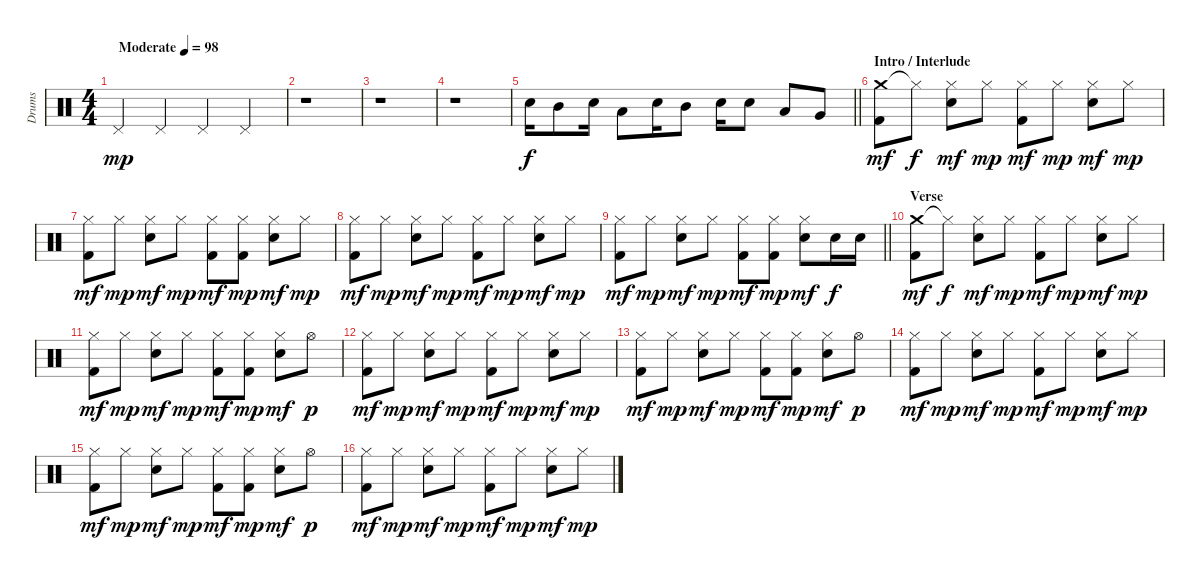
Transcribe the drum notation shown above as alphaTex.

\track ("Drums" "Drums") {instrument percussion}
\staff {score}
\articulation defaults
\ts (4 4)
\tempo (98 "Moderate")
\clef neutral
\ks c "Pedal Hi-Hat (hit)".4{dy mp} "Pedal Hi-Hat (hit)".4 "Pedal Hi-Hat (hit)".4 "Pedal Hi-Hat (hit)".4
|
r.1 |
r.1 |
r.1 |
\barLineRight lightlight "Electric Snare (hit)".16{dy f} "Mid Tom (hit)".8 "Electric Snare (hit)".16 "Low Tom (hit)".8 "Electric Snare (hit)".16 "Mid Tom (hit)".8 "Electric Snare (hit)".16 "Electric Snare (hit)".8 "Low Tom (hit)".8 "Very Low Tom (hit)".8
|
\section ("" "Intro / Interlude")
("Crash medium (hit)" "Kick (hit) 2").8{dy mf} "Hi-Hat (closed)"{t}.8{dy f} ("Hi-Hat (closed)" "Electric Snare (hit)").8{dy mf} "Hi-Hat (closed)".8{dy mp} ("Hi-Hat (closed)" "Kick (hit) 2").8{dy mf} "Hi-Hat (closed)".8{dy mp} ("Hi-Hat (closed)" "Electric Snare (hit)").8{dy mf} "Hi-Hat (closed)".8{dy mp} |
("Hi-Hat (closed)" "Kick (hit) 2").8{dy mf} "Hi-Hat (closed)".8{dy mp} ("Hi-Hat (closed)" "Electric Snare (hit)").8{dy mf} "Hi-Hat (closed)".8{dy mp} ("Hi-Hat (closed)" "Kick (hit) 2").8{dy mf} ("Hi-Hat (closed)" "Kick (hit) 2").8{dy mp} ("Hi-Hat (closed)" "Electric Snare (hit)").8{dy mf} "Hi-Hat (closed)".8{dy mp} |
("Hi-Hat (closed)" "Kick (hit) 2").8{dy mf} "Hi-Hat (closed)".8{dy mp} ("Hi-Hat (closed)" "Electric Snare (hit)").8{dy mf} "Hi-Hat (closed)".8{dy mp} ("Hi-Hat (closed)" "Kick (hit) 2").8{dy mf} "Hi-Hat (closed)".8{dy mp} ("Hi-Hat (closed)" "Electric Snare (hit)").8{dy mf} "Hi-Hat (closed)".8{dy mp} |
\barLineRight lightlight
("Hi-Hat (closed)" "Kick (hit) 2").8{dy mf} "Hi-Hat (closed)".8{dy mp} ("Hi-Hat (closed)" "Electric Snare (hit)").8{dy mf} "Hi-Hat (closed)".8{dy mp} ("Hi-Hat (closed)" "Kick (hit) 2").8{dy mf} ("Hi-Hat (closed)" "Kick (hit) 2").8{dy mp} ("Hi-Hat (closed)" "Electric Snare (hit)").8{dy mf} "Electric Snare (hit)".16{dy f} "Electric Snare (hit)".16 |
\section ("" "Verse")
("Crash medium (hit)" "Kick (hit) 2").8{dy mf} "Hi-Hat (closed)"{t}.8{dy f} ("Hi-Hat (closed)" "Electric Snare (hit)").8{dy mf} "Hi-Hat (closed)".8{dy mp} ("Hi-Hat (closed)" "Kick (hit) 2").8{dy mf} "Hi-Hat (closed)".8{dy mp} ("Hi-Hat (closed)" "Electric Snare (hit)").8{dy mf} "Hi-Hat (closed)".8{dy mp} |
("Hi-Hat (closed)" "Kick (hit) 2").8{dy mf} "Hi-Hat (closed)".8{dy mp} ("Hi-Hat (closed)" "Electric Snare (hit)").8{dy mf} "Hi-Hat (closed)".8{dy mp} ("Hi-Hat (closed)" "Kick (hit) 2").8{dy mf} ("Hi-Hat (closed)" "Kick (hit) 2").8{dy mp} ("Hi-Hat (closed)" "Electric Snare (hit)").8{dy mf} "Hi-Hat (open)".8{dy p} |
("Hi-Hat (closed)" "Kick (hit) 2").8{dy mf} "Hi-Hat (closed)".8{dy mp} ("Hi-Hat (closed)" "Electric Snare (hit)").8{dy mf} "Hi-Hat (closed)".8{dy mp} ("Hi-Hat (closed)" "Kick (hit) 2").8{dy mf} "Hi-Hat (closed)".8{dy mp} ("Hi-Hat (closed)" "Electric Snare (hit)").8{dy mf} "Hi-Hat (closed)".8{dy mp} |
("Hi-Hat (closed)" "Kick (hit) 2").8{dy mf} "Hi-Hat (closed)".8{dy mp} ("Hi-Hat (closed)" "Electric Snare (hit)").8{dy mf} "Hi-Hat (closed)".8{dy mp} ("Hi-Hat (closed)" "Kick (hit) 2").8{dy mf} ("Hi-Hat (closed)" "Kick (hit) 2").8{dy mp} ("Hi-Hat (closed)" "Electric Snare (hit)").8{dy mf} "Hi-Hat (open)".8{dy p} |
("Hi-Hat (closed)" "Kick (hit) 2").8{dy mf} "Hi-Hat (closed)".8{dy mp} ("Hi-Hat (closed)" "Electric Snare (hit)").8{dy mf} "Hi-Hat (closed)".8{dy mp} ("Hi-Hat (closed)" "Kick (hit) 2").8{dy mf} "Hi-Hat (closed)".8{dy mp} ("Hi-Hat (closed)" "Electric Snare (hit)").8{dy mf} "Hi-Hat (closed)".8{dy mp} |
("Hi-Hat (closed)" "Kick (hit) 2").8{dy mf} "Hi-Hat (closed)".8{dy mp} ("Hi-Hat (closed)" "Electric Snare (hit)").8{dy mf} "Hi-Hat (closed)".8{dy mp} ("Hi-Hat (closed)" "Kick (hit) 2").8{dy mf} ("Hi-Hat (closed)" "Kick (hit) 2").8{dy mp} ("Hi-Hat (closed)" "Electric Snare (hit)").8{dy mf} "Hi-Hat (open)".8{dy p} |
("Hi-Hat (closed)" "Kick (hit) 2").8{dy mf} "Hi-Hat (closed)".8{dy mp} ("Hi-Hat (closed)" "Electric Snare (hit)").8{dy mf} "Hi-Hat (closed)".8{dy mp} ("Hi-Hat (closed)" "Kick (hit) 2").8{dy mf} "Hi-Hat (closed)".8{dy mp} ("Hi-Hat (closed)" "Electric Snare (hit)").8{dy mf} "Hi-Hat (closed)".8{dy mp}
